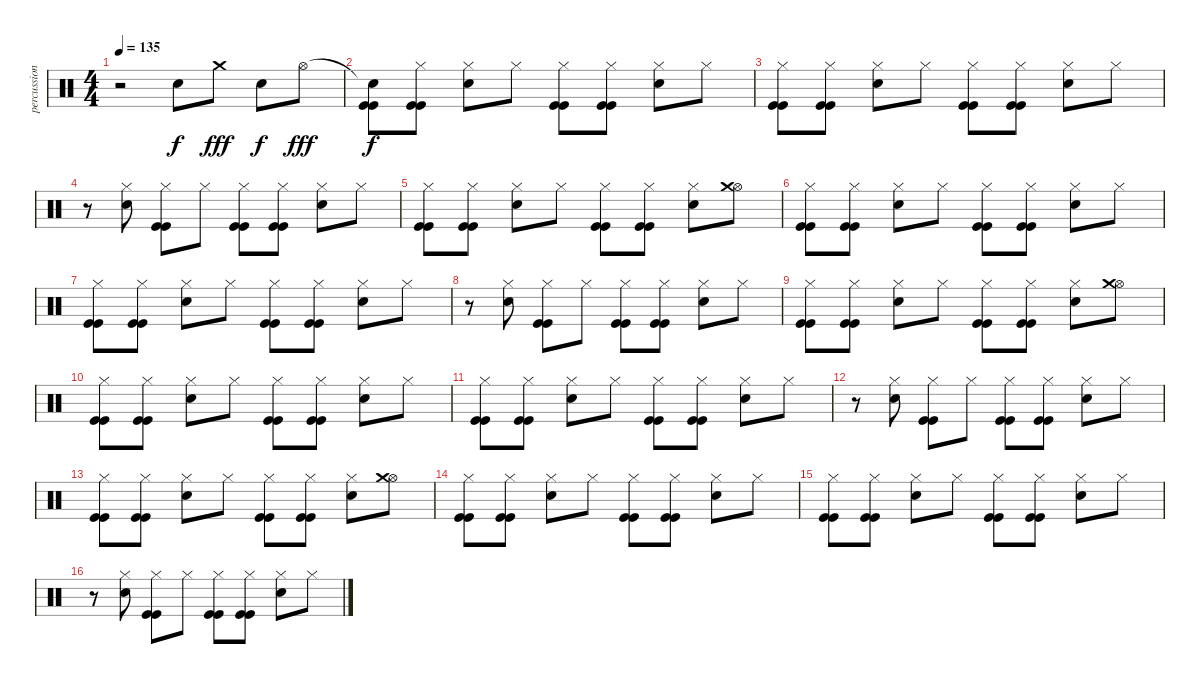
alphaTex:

\track ("percussions" "percussion") {instrument percussion}
\staff {score}
\articulation defaults
\ts (4 4)
\tempo 135
\clef neutral
\ks c
r.2{dy f} "Electric Snare (hit)".8 "Crash medium (hit)".8{dy fff} "Electric Snare (hit)".8{dy f} "Hi-Hat (open)".8{dy fff} |
("Snare (hit)"{t} "Kick (hit)" "Kick (hit)").8{dy f} ("Hi-Hat (closed)" "Kick (hit)" "Kick (hit)").8 ("Hi-Hat (closed)" "Electric Snare (hit)").8 "Hi-Hat (closed)".8 ("Hi-Hat (closed)" "Kick (hit)" "Kick (hit)").8 ("Hi-Hat (closed)" "Kick (hit)" "Kick (hit)").8 ("Hi-Hat (closed)" "Electric Snare (hit)").8 "Hi-Hat (closed)".8 |
("Hi-Hat (closed)" "Kick (hit)" "Kick (hit)").8 ("Hi-Hat (closed)" "Kick (hit)" "Kick (hit)").8 ("Hi-Hat (closed)" "Electric Snare (hit)").8 "Hi-Hat (closed)".8 ("Hi-Hat (closed)" "Kick (hit)" "Kick (hit)").8 ("Hi-Hat (closed)" "Kick (hit)" "Kick (hit)").8 ("Hi-Hat (closed)" "Electric Snare (hit)").8 "Hi-Hat (closed)".8 |
r.8 ("Hi-Hat (closed)" "Electric Snare (hit)").8 ("Hi-Hat (closed)" "Kick (hit)" "Kick (hit)").8 "Hi-Hat (closed)".8 ("Hi-Hat (closed)" "Kick (hit)" "Kick (hit)").8 ("Hi-Hat (closed)" "Kick (hit)" "Kick (hit)").8 ("Hi-Hat (closed)" "Electric Snare (hit)").8 "Hi-Hat (closed)".8 |
("Hi-Hat (closed)" "Kick (hit)" "Kick (hit)").8 ("Hi-Hat (closed)" "Kick (hit)" "Kick (hit)").8 ("Hi-Hat (closed)" "Electric Snare (hit)").8 "Hi-Hat (closed)".8 ("Hi-Hat (closed)" "Kick (hit)" "Kick (hit)").8 ("Hi-Hat (closed)" "Kick (hit)" "Kick (hit)").8 ("Hi-Hat (closed)" "Electric Snare (hit)").8 ("Hi-Hat (open)" "Crash medium (hit)").8 |
("Hi-Hat (closed)" "Kick (hit)" "Kick (hit)").8 ("Hi-Hat (closed)" "Kick (hit)" "Kick (hit)").8 ("Hi-Hat (closed)" "Electric Snare (hit)").8 "Hi-Hat (closed)".8 ("Hi-Hat (closed)" "Kick (hit)" "Kick (hit)").8 ("Hi-Hat (closed)" "Kick (hit)" "Kick (hit)").8 ("Hi-Hat (closed)" "Electric Snare (hit)").8 "Hi-Hat (closed)".8 |
("Hi-Hat (closed)" "Kick (hit)" "Kick (hit)").8 ("Hi-Hat (closed)" "Kick (hit)" "Kick (hit)").8 ("Hi-Hat (closed)" "Electric Snare (hit)").8 "Hi-Hat (closed)".8 ("Hi-Hat (closed)" "Kick (hit)" "Kick (hit)").8 ("Hi-Hat (closed)" "Kick (hit)" "Kick (hit)").8 ("Hi-Hat (closed)" "Electric Snare (hit)").8 "Hi-Hat (closed)".8 |
r.8 ("Hi-Hat (closed)" "Electric Snare (hit)").8 ("Hi-Hat (closed)" "Kick (hit)" "Kick (hit)").8 "Hi-Hat (closed)".8 ("Hi-Hat (closed)" "Kick (hit)" "Kick (hit)").8 ("Hi-Hat (closed)" "Kick (hit)" "Kick (hit)").8 ("Hi-Hat (closed)" "Electric Snare (hit)").8 "Hi-Hat (closed)".8 |
("Hi-Hat (closed)" "Kick (hit)" "Kick (hit)").8 ("Hi-Hat (closed)" "Kick (hit)" "Kick (hit)").8 ("Hi-Hat (closed)" "Electric Snare (hit)").8 "Hi-Hat (closed)".8 ("Hi-Hat (closed)" "Kick (hit)" "Kick (hit)").8 ("Hi-Hat (closed)" "Kick (hit)" "Kick (hit)").8 ("Hi-Hat (closed)" "Electric Snare (hit)").8 ("Hi-Hat (open)" "Crash medium (hit)").8 |
("Hi-Hat (closed)" "Kick (hit)" "Kick (hit)").8 ("Hi-Hat (closed)" "Kick (hit)" "Kick (hit)").8 ("Hi-Hat (closed)" "Electric Snare (hit)").8 "Hi-Hat (closed)".8 ("Hi-Hat (closed)" "Kick (hit)" "Kick (hit)").8 ("Hi-Hat (closed)" "Kick (hit)" "Kick (hit)").8 ("Hi-Hat (closed)" "Electric Snare (hit)").8 "Hi-Hat (closed)".8 |
("Hi-Hat (closed)" "Kick (hit)" "Kick (hit)").8 ("Hi-Hat (closed)" "Kick (hit)" "Kick (hit)").8 ("Hi-Hat (closed)" "Electric Snare (hit)").8 "Hi-Hat (closed)".8 ("Hi-Hat (closed)" "Kick (hit)" "Kick (hit)").8 ("Hi-Hat (closed)" "Kick (hit)" "Kick (hit)").8 ("Hi-Hat (closed)" "Electric Snare (hit)").8 "Hi-Hat (closed)".8 |
r.8 ("Hi-Hat (closed)" "Electric Snare (hit)").8 ("Hi-Hat (closed)" "Kick (hit)" "Kick (hit)").8 "Hi-Hat (closed)".8 ("Hi-Hat (closed)" "Kick (hit)" "Kick (hit)").8 ("Hi-Hat (closed)" "Kick (hit)" "Kick (hit)").8 ("Hi-Hat (closed)" "Electric Snare (hit)").8 "Hi-Hat (closed)".8 |
("Hi-Hat (closed)" "Kick (hit)" "Kick (hit)").8 ("Hi-Hat (closed)" "Kick (hit)" "Kick (hit)").8 ("Hi-Hat (closed)" "Electric Snare (hit)").8 "Hi-Hat (closed)".8 ("Hi-Hat (closed)" "Kick (hit)" "Kick (hit)").8 ("Hi-Hat (closed)" "Kick (hit)" "Kick (hit)").8 ("Hi-Hat (closed)" "Electric Snare (hit)").8 ("Hi-Hat (open)" "Crash medium (hit)").8 |
("Hi-Hat (closed)" "Kick (hit)" "Kick (hit)").8 ("Hi-Hat (closed)" "Kick (hit)" "Kick (hit)").8 ("Hi-Hat (closed)" "Electric Snare (hit)").8 "Hi-Hat (closed)".8 ("Hi-Hat (closed)" "Kick (hit)" "Kick (hit)").8 ("Hi-Hat (closed)" "Kick (hit)" "Kick (hit)").8 ("Hi-Hat (closed)" "Electric Snare (hit)").8 "Hi-Hat (closed)".8 |
("Hi-Hat (closed)" "Kick (hit)" "Kick (hit)").8 ("Hi-Hat (closed)" "Kick (hit)" "Kick (hit)").8 ("Hi-Hat (closed)" "Electric Snare (hit)").8 "Hi-Hat (closed)".8 ("Hi-Hat (closed)" "Kick (hit)" "Kick (hit)").8 ("Hi-Hat (closed)" "Kick (hit)" "Kick (hit)").8 ("Hi-Hat (closed)" "Electric Snare (hit)").8 "Hi-Hat (closed)".8 |
r.8 ("Hi-Hat (closed)" "Electric Snare (hit)").8 ("Hi-Hat (closed)" "Kick (hit)" "Kick (hit)").8 "Hi-Hat (closed)".8 ("Hi-Hat (closed)" "Kick (hit)" "Kick (hit)").8 ("Hi-Hat (closed)" "Kick (hit)" "Kick (hit)").8 ("Hi-Hat (closed)" "Electric Snare (hit)").8 "Hi-Hat (closed)".8
